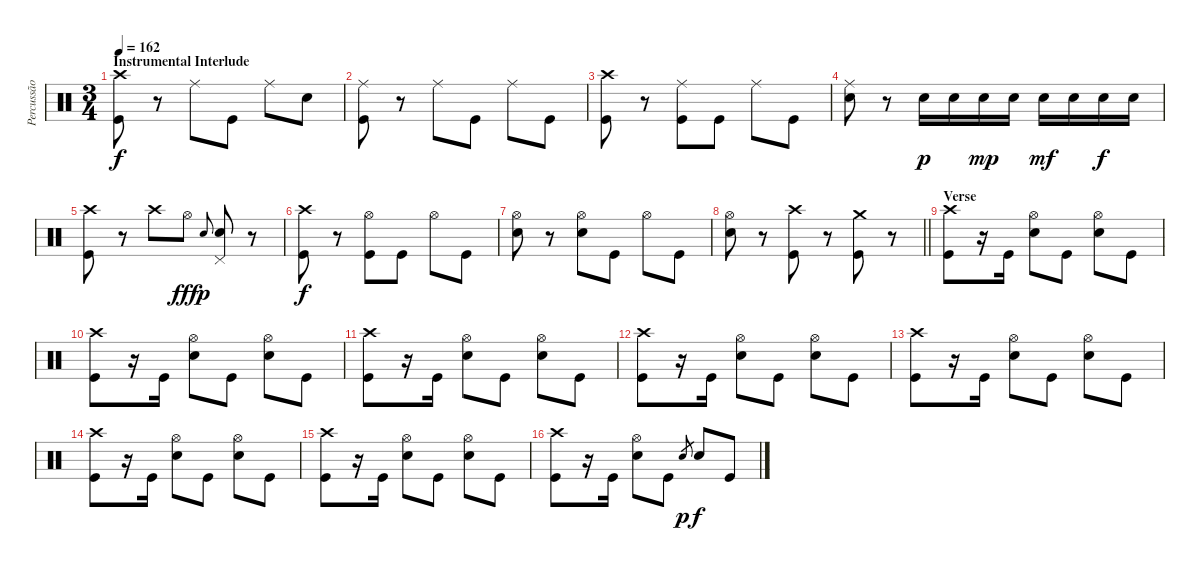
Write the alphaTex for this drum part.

\track ("Percussão" "Percussão") {instrument percussion}
\staff {score}
\articulation defaults
\ts (3 4)
\section ("" "Instrumental Interlude")
\tempo 162
\clef neutral
\ks c
("Crash high (hit)" "Kick (hit)").8{dy f} r.8 "Ride (middle)".8 "Kick (hit)".8 "Ride (middle)".8 "Snare (hit) 2".8 |
("Ride (middle)" "Kick (hit)").8 r.8 "Ride (middle)".8 "Kick (hit)".8 "Ride (middle)".8 "Kick (hit)".8 |
("Crash high (hit)" "Kick (hit)").8 r.8 ("Ride (middle)" "Kick (hit)").8 "Kick (hit)".8 "Ride (middle)".8 "Kick (hit)".8 |
("Ride (middle)" "Snare (hit) 2").8 r.8 "Snare (hit) 2".16{dy p} "Snare (hit) 2".16 "Snare (hit) 2".16{dy mp} "Snare (hit) 2".16 "Snare (hit) 2".16{dy mf} "Snare (hit) 2".16 "Snare (hit) 2".16{dy f} "Snare (hit) 2".16 |
("Crash high (hit)" "Kick (hit)").8 r.8 "Crash high (hit)".8 "Hi-Hat (open)".8{dy fff} "Snare (hit) 2".8{gr onbeat dy p} ("Snare (hit) 2" "Pedal Hi-Hat (hit)").8 r.8 |
("Crash high (hit)" "Kick (hit)").8{dy f} r.8 ("Hi-Hat (open)" "Kick (hit)").8 "Kick (hit)".8 "Hi-Hat (open)".8 "Kick (hit)".8 |
("Hi-Hat (open)" "Snare (hit) 2").8 r.8 ("Hi-Hat (open)" "Snare (hit) 2").8 "Kick (hit)".8 "Hi-Hat (open)".8 "Kick (hit)".8 |
\barLineRight lightlight
("Hi-Hat (open)" "Snare (hit) 2").8 r.8 ("Crash high (hit)" "Kick (hit)").8 r.8 ("Crash medium (hit)" "Kick (hit)").8 r.8 |
\section ("" "Verse")
("Crash high (hit)" "Kick (hit)").8 r.16 "Kick (hit)".16 ("Hi-Hat (open)" "Snare (hit) 2").8 "Kick (hit)".8 ("Hi-Hat (open)" "Snare (hit) 2").8 "Kick (hit)".8 |
("Crash high (hit)" "Kick (hit)").8 r.16 "Kick (hit)".16 ("Hi-Hat (open)" "Snare (hit) 2").8 "Kick (hit)".8 ("Hi-Hat (open)" "Snare (hit) 2").8 "Kick (hit)".8 |
("Crash high (hit)" "Kick (hit)").8 r.16 "Kick (hit)".16 ("Hi-Hat (open)" "Snare (hit) 2").8 "Kick (hit)".8 ("Hi-Hat (open)" "Snare (hit) 2").8 "Kick (hit)".8 |
("Crash high (hit)" "Kick (hit)").8 r.16 "Kick (hit)".16 ("Hi-Hat (open)" "Snare (hit) 2").8 "Kick (hit)".8 ("Hi-Hat (open)" "Snare (hit) 2").8 "Kick (hit)".8 |
("Crash high (hit)" "Kick (hit)").8 r.16 "Kick (hit)".16 ("Hi-Hat (open)" "Snare (hit) 2").8 "Kick (hit)".8 ("Hi-Hat (open)" "Snare (hit) 2").8 "Kick (hit)".8 |
("Crash high (hit)" "Kick (hit)").8 r.16 "Kick (hit)".16 ("Hi-Hat (open)" "Snare (hit) 2").8 "Kick (hit)".8 ("Hi-Hat (open)" "Snare (hit) 2").8 "Kick (hit)".8 |
("Crash high (hit)" "Kick (hit)").8 r.16 "Kick (hit)".16 ("Hi-Hat (open)" "Snare (hit) 2").8 "Kick (hit)".8 ("Hi-Hat (open)" "Snare (hit) 2").8 "Kick (hit)".8 |
("Crash high (hit)" "Kick (hit)").8 r.16 "Kick (hit)".16 ("Hi-Hat (open)" "Snare (hit) 2").8 "Kick (hit)".8 "Snare (hit) 2".8{gr dy p} "Snare (hit) 2".8{dy f} "Kick (hit)".8
